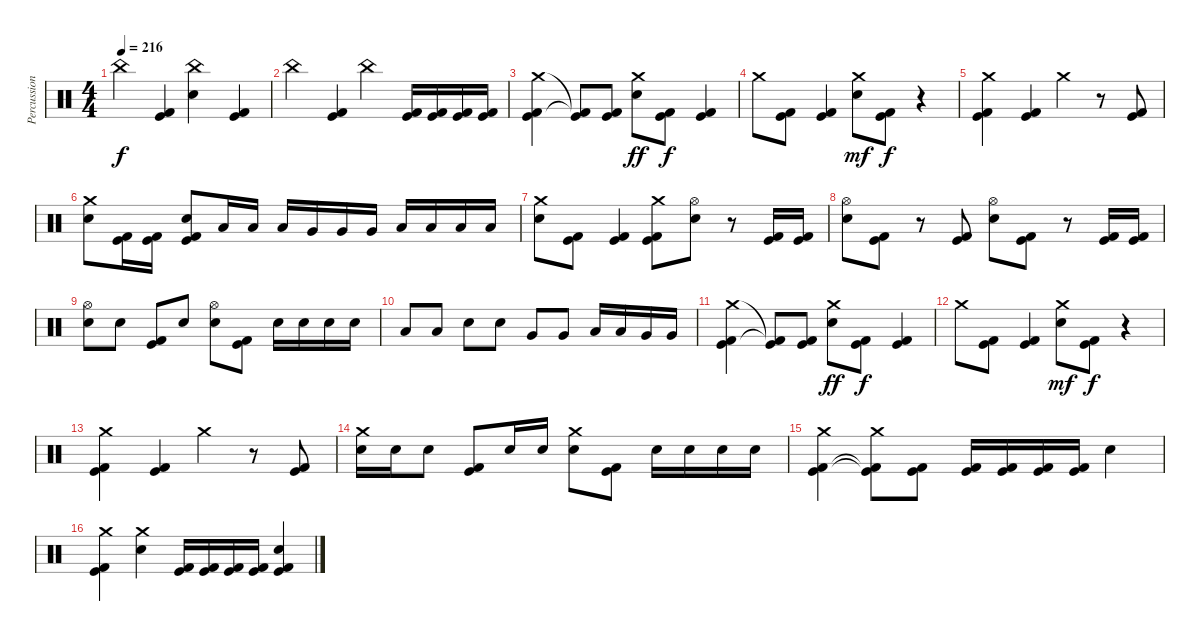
\track ("Percussions" "Percussion") {instrument percussion}
\staff {score}
\articulation defaults
\ts (4 4)
\tempo 216
\clef neutral
\ks c "China (hit)".4{dy f}
("Kick (hit)" "Kick (hit) 2").4 ("China (hit)" "Electric Snare (hit)").4 ("Kick (hit)" "Kick (hit) 2").4 |
"China (hit)".4 ("Kick (hit)" "Kick (hit) 2").4 "China (hit)".4 ("Kick (hit)" "Kick (hit) 2").16 ("Kick (hit)" "Kick (hit) 2").16 ("Kick (hit)" "Kick (hit) 2").16 ("Kick (hit)" "Kick (hit) 2").16 |
("Crash medium (hit)" "Kick (hit)" "Kick (hit) 2").4 ("Kick (hit)"{t} "Kick (hit) 2"{t}).8 ("Kick (hit)" "Kick (hit) 2").8 ("Crash medium (hit)" "Electric Snare (hit)").8{dy ff} ("Kick (hit)" "Kick (hit) 2").8{dy f} ("Kick (hit)" "Kick (hit) 2").4 |
"Crash medium (hit)".8 ("Kick (hit)" "Kick (hit) 2").8 ("Kick (hit)" "Kick (hit) 2").4 ("Crash medium (hit)" "Electric Snare (hit)").8{dy mf} ("Kick (hit)" "Kick (hit) 2").8{dy f} r.4 |
("Crash medium (hit)" "Kick (hit)" "Kick (hit) 2").4 ("Kick (hit)" "Kick (hit) 2").4 "Crash medium (hit)".4 r.8 ("Kick (hit)" "Kick (hit) 2").8 |
("Crash medium (hit)" "Electric Snare (hit)").8 ("Kick (hit)" "Kick (hit) 2").16 ("Kick (hit)" "Kick (hit) 2").16 ("Electric Snare (hit)" "Kick (hit)" "Kick (hit) 2").8 "Low Tom (hit)".16 "Low Tom (hit)".16 "Low Tom (hit)".16 "Very Low Tom (hit)".16 "Very Low Tom (hit)".16 "Very Low Tom (hit)".16 "Low Floor Tom (hit)".16 "Low Floor Tom (hit)".16 "Low Floor Tom (hit)".16 "Low Floor Tom (hit)".16 |
("Crash medium (hit)" "Electric Snare (hit)").8 ("Kick (hit)" "Kick (hit) 2").8 ("Kick (hit)" "Kick (hit) 2").4 ("Crash medium (hit)" "Kick (hit)" "Kick (hit) 2").8 ("Hi-Hat (open)" "Electric Snare (hit)").8 r.8 ("Kick (hit)" "Kick (hit) 2").16 ("Kick (hit)" "Kick (hit) 2").16 |
("Hi-Hat (open)" "Electric Snare (hit)").8 ("Kick (hit)" "Kick (hit) 2").8 r.8 ("Kick (hit)" "Kick (hit) 2").8 ("Hi-Hat (open)" "Electric Snare (hit)").8 ("Kick (hit)" "Kick (hit) 2").8 r.8 ("Kick (hit)" "Kick (hit) 2").16 ("Kick (hit)" "Kick (hit) 2").16 |
("Hi-Hat (open)" "Electric Snare (hit)").8 "Electric Snare (hit)".8 ("Kick (hit)" "Kick (hit) 2").8 "Electric Snare (hit)".8 ("Hi-Hat (open)" "Electric Snare (hit)").8 ("Kick (hit)" "Kick (hit) 2").8 "Electric Snare (hit)".16 "Electric Snare (hit)".16 "Electric Snare (hit)".16 "Electric Snare (hit)".16 |
"Low Tom (hit)".8 "Low Tom (hit)".8 "Electric Snare (hit)".8 "Electric Snare (hit)".8 "Very Low Tom (hit)".8 "Very Low Tom (hit)".8 "Low Tom (hit)".16 "Low Tom (hit)".16 "Very Low Tom (hit)".16 "Very Low Tom (hit)".16 |
("Crash medium (hit)" "Kick (hit)" "Kick (hit) 2").4 ("Kick (hit)"{t} "Kick (hit) 2"{t}).8 ("Kick (hit)" "Kick (hit) 2").8 ("Crash medium (hit)" "Electric Snare (hit)").8{dy ff} ("Kick (hit)" "Kick (hit) 2").8{dy f} ("Kick (hit)" "Kick (hit) 2").4 |
"Crash medium (hit)".8 ("Kick (hit)" "Kick (hit) 2").8 ("Kick (hit)" "Kick (hit) 2").4 ("Crash medium (hit)" "Electric Snare (hit)").8{dy mf} ("Kick (hit)" "Kick (hit) 2").8{dy f} r.4 |
("Crash medium (hit)" "Kick (hit)" "Kick (hit) 2").4 ("Kick (hit)" "Kick (hit) 2").4 "Crash medium (hit)".4 r.8 ("Kick (hit)" "Kick (hit) 2").8 |
("Crash medium (hit)" "Electric Snare (hit)").16 "Electric Snare (hit)".16 "Electric Snare (hit)".8 ("Kick (hit)" "Kick (hit) 2").8 "Electric Snare (hit)".16 "Electric Snare (hit)".16 ("Crash medium (hit)" "Electric Snare (hit)").8 ("Kick (hit)" "Kick (hit) 2").8 "Electric Snare (hit)".16 "Electric Snare (hit)".16 "Electric Snare (hit)".16 "Electric Snare (hit)".16 |
("Crash medium (hit)" "Kick (hit)" "Kick (hit) 2").4 ("Crash medium (hit)" "Kick (hit)"{t} "Kick (hit) 2"{t}).8 ("Kick (hit)" "Kick (hit) 2").8 ("Kick (hit)" "Kick (hit) 2").16 ("Kick (hit)" "Kick (hit) 2").16 ("Kick (hit)" "Kick (hit) 2").16 ("Kick (hit)" "Kick (hit) 2").16 "Electric Snare (hit)".4 |
("Crash medium (hit)" "Kick (hit)" "Kick (hit) 2").4 ("Crash medium (hit)" "Electric Snare (hit)").4 ("Kick (hit)" "Kick (hit) 2").16 ("Kick (hit)" "Kick (hit) 2").16 ("Kick (hit)" "Kick (hit) 2").16 ("Kick (hit)" "Kick (hit) 2").16 ("Electric Snare (hit)" "Kick (hit)" "Kick (hit) 2").4
